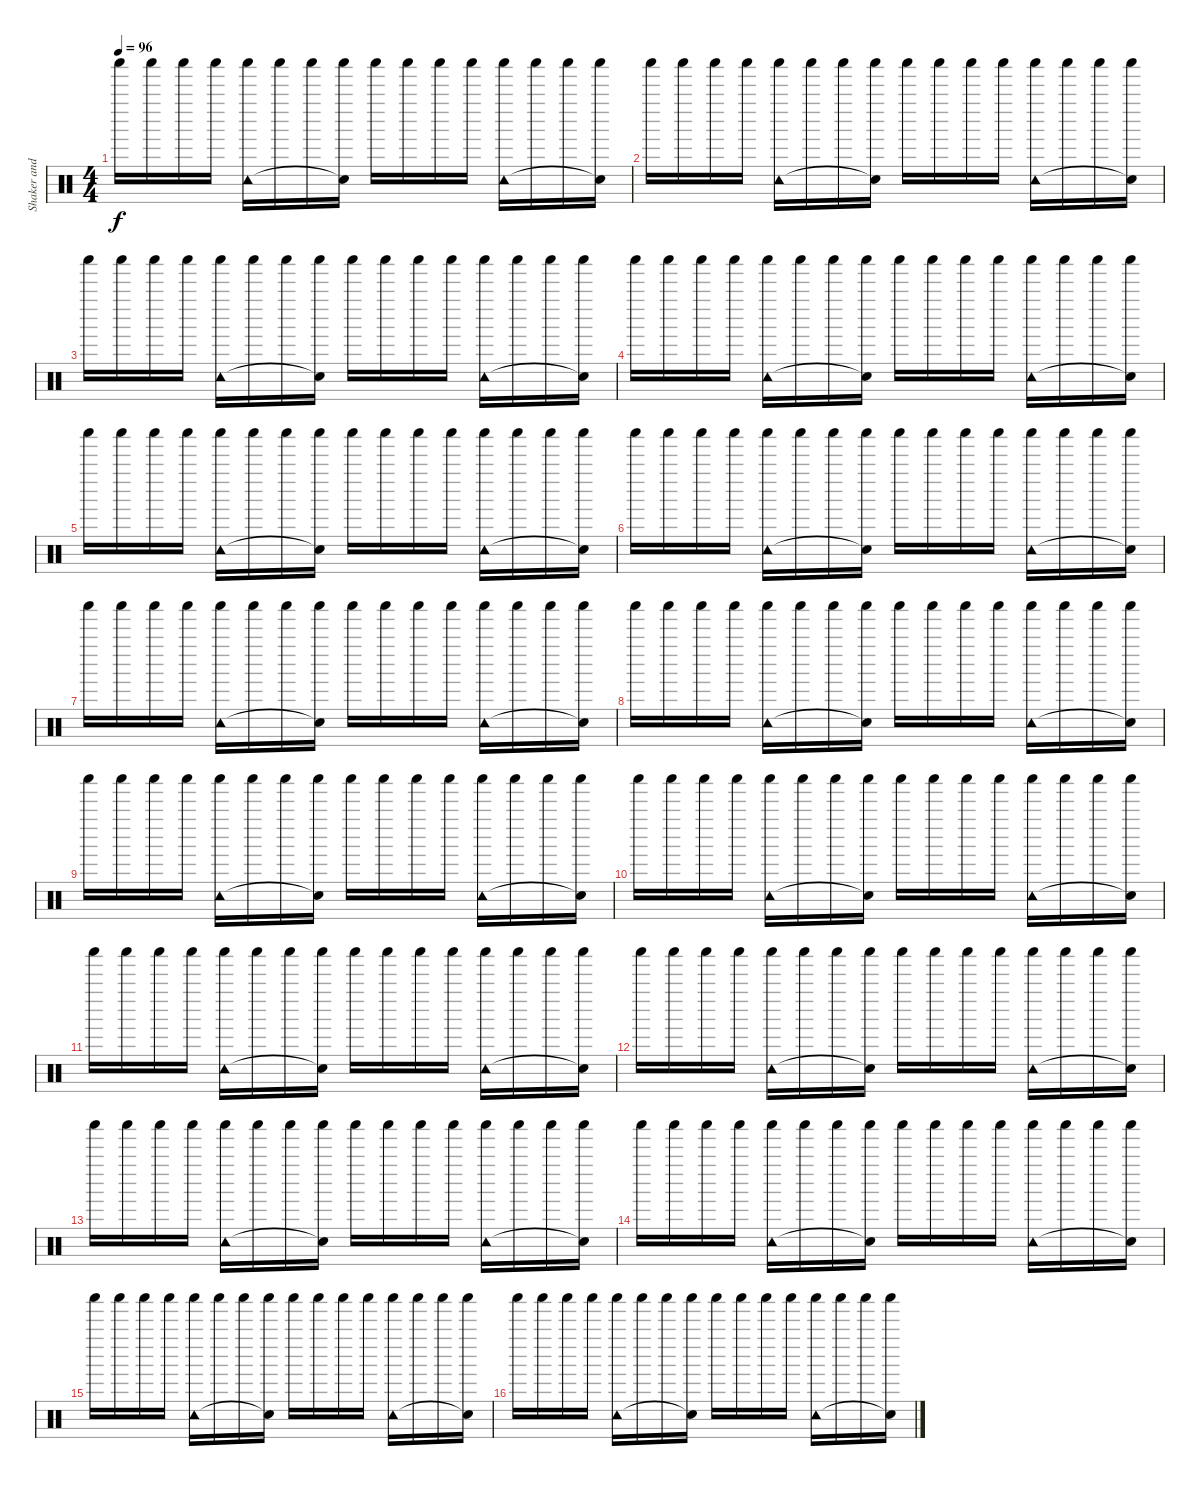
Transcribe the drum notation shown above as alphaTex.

\track ("Shaker and Tambourine" "Shaker and") {instrument percussion}
\staff {score}
\articulation defaults
\ts (4 4)
\tempo 96
\clef neutral
\ks c "Shaker (hit)".16{dy f} "Shaker (hit)".16 "Shaker (hit)".16 "Shaker (hit)".16
("Shaker (hit)" "Tambourine (hit)").16 "Shaker (hit)".16 "Shaker (hit)".16 ("Shaker (hit)" "Snare (hit)"{t}).16 "Shaker (hit)".16 "Shaker (hit)".16 "Shaker (hit)".16 "Shaker (hit)".16 ("Shaker (hit)" "Tambourine (hit)").16 "Shaker (hit)".16 "Shaker (hit)".16 ("Shaker (hit)" "Snare (hit)"{t}).16 |
"Shaker (hit)".16 "Shaker (hit)".16 "Shaker (hit)".16 "Shaker (hit)".16 ("Shaker (hit)" "Tambourine (hit)").16 "Shaker (hit)".16 "Shaker (hit)".16 ("Shaker (hit)" "Snare (hit)"{t}).16 "Shaker (hit)".16 "Shaker (hit)".16 "Shaker (hit)".16 "Shaker (hit)".16 ("Shaker (hit)" "Tambourine (hit)").16 "Shaker (hit)".16 "Shaker (hit)".16 ("Shaker (hit)" "Snare (hit)"{t}).16 |
"Shaker (hit)".16 "Shaker (hit)".16 "Shaker (hit)".16 "Shaker (hit)".16 ("Shaker (hit)" "Tambourine (hit)").16 "Shaker (hit)".16 "Shaker (hit)".16 ("Shaker (hit)" "Snare (hit)"{t}).16 "Shaker (hit)".16 "Shaker (hit)".16 "Shaker (hit)".16 "Shaker (hit)".16 ("Shaker (hit)" "Tambourine (hit)").16 "Shaker (hit)".16 "Shaker (hit)".16 ("Shaker (hit)" "Snare (hit)"{t}).16 |
"Shaker (hit)".16 "Shaker (hit)".16 "Shaker (hit)".16 "Shaker (hit)".16 ("Shaker (hit)" "Tambourine (hit)").16 "Shaker (hit)".16 "Shaker (hit)".16 ("Shaker (hit)" "Snare (hit)"{t}).16 "Shaker (hit)".16 "Shaker (hit)".16 "Shaker (hit)".16 "Shaker (hit)".16 ("Shaker (hit)" "Tambourine (hit)").16 "Shaker (hit)".16 "Shaker (hit)".16 ("Shaker (hit)" "Snare (hit)"{t}).16 |
"Shaker (hit)".16 "Shaker (hit)".16 "Shaker (hit)".16 "Shaker (hit)".16 ("Shaker (hit)" "Tambourine (hit)").16 "Shaker (hit)".16 "Shaker (hit)".16 ("Shaker (hit)" "Snare (hit)"{t}).16 "Shaker (hit)".16 "Shaker (hit)".16 "Shaker (hit)".16 "Shaker (hit)".16 ("Shaker (hit)" "Tambourine (hit)").16 "Shaker (hit)".16 "Shaker (hit)".16 ("Shaker (hit)" "Snare (hit)"{t}).16 |
"Shaker (hit)".16 "Shaker (hit)".16 "Shaker (hit)".16 "Shaker (hit)".16 ("Shaker (hit)" "Tambourine (hit)").16 "Shaker (hit)".16 "Shaker (hit)".16 ("Shaker (hit)" "Snare (hit)"{t}).16 "Shaker (hit)".16 "Shaker (hit)".16 "Shaker (hit)".16 "Shaker (hit)".16 ("Shaker (hit)" "Tambourine (hit)").16 "Shaker (hit)".16 "Shaker (hit)".16 ("Shaker (hit)" "Snare (hit)"{t}).16 |
"Shaker (hit)".16 "Shaker (hit)".16 "Shaker (hit)".16 "Shaker (hit)".16 ("Shaker (hit)" "Tambourine (hit)").16 "Shaker (hit)".16 "Shaker (hit)".16 ("Shaker (hit)" "Snare (hit)"{t}).16 "Shaker (hit)".16 "Shaker (hit)".16 "Shaker (hit)".16 "Shaker (hit)".16 ("Shaker (hit)" "Tambourine (hit)").16 "Shaker (hit)".16 "Shaker (hit)".16 ("Shaker (hit)" "Snare (hit)"{t}).16 |
"Shaker (hit)".16 "Shaker (hit)".16 "Shaker (hit)".16 "Shaker (hit)".16 ("Shaker (hit)" "Tambourine (hit)").16 "Shaker (hit)".16 "Shaker (hit)".16 ("Shaker (hit)" "Snare (hit)"{t}).16 "Shaker (hit)".16 "Shaker (hit)".16 "Shaker (hit)".16 "Shaker (hit)".16 ("Shaker (hit)" "Tambourine (hit)").16 "Shaker (hit)".16 "Shaker (hit)".16 ("Shaker (hit)" "Snare (hit)"{t}).16 |
"Shaker (hit)".16 "Shaker (hit)".16 "Shaker (hit)".16 "Shaker (hit)".16 ("Shaker (hit)" "Tambourine (hit)").16 "Shaker (hit)".16 "Shaker (hit)".16 ("Shaker (hit)" "Snare (hit)"{t}).16 "Shaker (hit)".16 "Shaker (hit)".16 "Shaker (hit)".16 "Shaker (hit)".16 ("Shaker (hit)" "Tambourine (hit)").16 "Shaker (hit)".16 "Shaker (hit)".16 ("Shaker (hit)" "Snare (hit)"{t}).16 |
"Shaker (hit)".16 "Shaker (hit)".16 "Shaker (hit)".16 "Shaker (hit)".16 ("Shaker (hit)" "Tambourine (hit)").16 "Shaker (hit)".16 "Shaker (hit)".16 ("Shaker (hit)" "Snare (hit)"{t}).16 "Shaker (hit)".16 "Shaker (hit)".16 "Shaker (hit)".16 "Shaker (hit)".16 ("Shaker (hit)" "Tambourine (hit)").16 "Shaker (hit)".16 "Shaker (hit)".16 ("Shaker (hit)" "Snare (hit)"{t}).16 |
"Shaker (hit)".16 "Shaker (hit)".16 "Shaker (hit)".16 "Shaker (hit)".16 ("Shaker (hit)" "Tambourine (hit)").16 "Shaker (hit)".16 "Shaker (hit)".16 ("Shaker (hit)" "Snare (hit)"{t}).16 "Shaker (hit)".16 "Shaker (hit)".16 "Shaker (hit)".16 "Shaker (hit)".16 ("Shaker (hit)" "Tambourine (hit)").16 "Shaker (hit)".16 "Shaker (hit)".16 ("Shaker (hit)" "Snare (hit)"{t}).16 |
"Shaker (hit)".16 "Shaker (hit)".16 "Shaker (hit)".16 "Shaker (hit)".16 ("Shaker (hit)" "Tambourine (hit)").16 "Shaker (hit)".16 "Shaker (hit)".16 ("Shaker (hit)" "Snare (hit)"{t}).16 "Shaker (hit)".16 "Shaker (hit)".16 "Shaker (hit)".16 "Shaker (hit)".16 ("Shaker (hit)" "Tambourine (hit)").16 "Shaker (hit)".16 "Shaker (hit)".16 ("Shaker (hit)" "Snare (hit)"{t}).16 |
"Shaker (hit)".16 "Shaker (hit)".16 "Shaker (hit)".16 "Shaker (hit)".16 ("Shaker (hit)" "Tambourine (hit)").16 "Shaker (hit)".16 "Shaker (hit)".16 ("Shaker (hit)" "Snare (hit)"{t}).16 "Shaker (hit)".16 "Shaker (hit)".16 "Shaker (hit)".16 "Shaker (hit)".16 ("Shaker (hit)" "Tambourine (hit)").16 "Shaker (hit)".16 "Shaker (hit)".16 ("Shaker (hit)" "Snare (hit)"{t}).16 |
"Shaker (hit)".16 "Shaker (hit)".16 "Shaker (hit)".16 "Shaker (hit)".16 ("Shaker (hit)" "Tambourine (hit)").16 "Shaker (hit)".16 "Shaker (hit)".16 ("Shaker (hit)" "Snare (hit)"{t}).16 "Shaker (hit)".16 "Shaker (hit)".16 "Shaker (hit)".16 "Shaker (hit)".16 ("Shaker (hit)" "Tambourine (hit)").16 "Shaker (hit)".16 "Shaker (hit)".16 ("Shaker (hit)" "Snare (hit)"{t}).16 |
"Shaker (hit)".16 "Shaker (hit)".16 "Shaker (hit)".16 "Shaker (hit)".16 ("Shaker (hit)" "Tambourine (hit)").16 "Shaker (hit)".16 "Shaker (hit)".16 ("Shaker (hit)" "Snare (hit)"{t}).16 "Shaker (hit)".16 "Shaker (hit)".16 "Shaker (hit)".16 "Shaker (hit)".16 ("Shaker (hit)" "Tambourine (hit)").16 "Shaker (hit)".16 "Shaker (hit)".16 ("Shaker (hit)" "Snare (hit)"{t}).16 |
"Shaker (hit)".16 "Shaker (hit)".16 "Shaker (hit)".16 "Shaker (hit)".16 ("Shaker (hit)" "Tambourine (hit)").16 "Shaker (hit)".16 "Shaker (hit)".16 ("Shaker (hit)" "Snare (hit)"{t}).16 "Shaker (hit)".16 "Shaker (hit)".16 "Shaker (hit)".16 "Shaker (hit)".16 ("Shaker (hit)" "Tambourine (hit)").16 "Shaker (hit)".16 "Shaker (hit)".16 ("Shaker (hit)" "Snare (hit)"{t}).16
